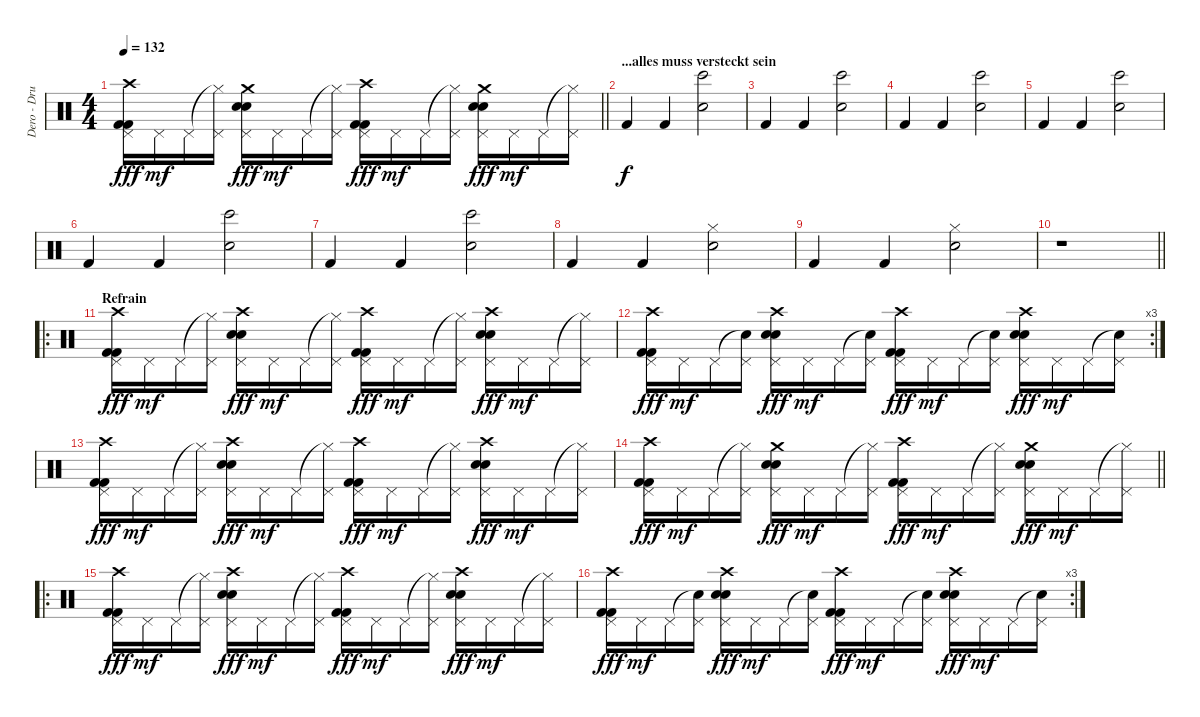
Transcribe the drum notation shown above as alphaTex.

\track ("Dero - Drums" "Dero - Dru") {instrument percussion}
\staff {score}
\articulation defaults
\ts (4 4)
\tempo 132
\clef neutral
\barLineRight lightlight
\ks c
("Crash high (hit)" "Pedal Hi-Hat (hit)" "Kick (hit) 2" "Kick (hit) 2").16{dy fff} "Pedal Hi-Hat (hit)".16{dy mf} "Pedal Hi-Hat (hit)".16 ("Hi-Hat (closed)"{t} "Pedal Hi-Hat (hit)").16 ("Crash medium (hit)" "Pedal Hi-Hat (hit)" "Electric Snare (hit)" "Electric Snare (hit)").16{dy fff} "Pedal Hi-Hat (hit)".16{dy mf} "Pedal Hi-Hat (hit)".16 ("Hi-Hat (closed)"{t} "Pedal Hi-Hat (hit)").16 ("Crash high (hit)" "Pedal Hi-Hat (hit)" "Kick (hit) 2" "Kick (hit) 2").16{dy fff} "Pedal Hi-Hat (hit)".16{dy mf} "Pedal Hi-Hat (hit)".16 ("Hi-Hat (closed)"{t} "Pedal Hi-Hat (hit)").16 ("Crash medium (hit)" "Pedal Hi-Hat (hit)" "Electric Snare (hit)" "Electric Snare (hit)").16{dy fff} "Pedal Hi-Hat (hit)".16{dy mf} "Pedal Hi-Hat (hit)".16 ("Hi-Hat (closed)"{t} "Pedal Hi-Hat (hit)").16 |
\section ("" "...alles muss versteckt sein")
"Kick (hit) 2".4{dy f} "Kick (hit) 2".4 ("Bongo High (hit)" "Snare (hit) 2").2 |
"Kick (hit) 2".4 "Kick (hit) 2".4 ("Bongo High (hit)" "Snare (hit) 2").2 |
"Kick (hit) 2".4 "Kick (hit) 2".4 ("Bongo High (hit)" "Snare (hit) 2").2 |
"Kick (hit) 2".4 "Kick (hit) 2".4 ("Bongo High (hit)" "Snare (hit) 2").2 |
"Kick (hit) 2".4 "Kick (hit) 2".4 ("Bongo High (hit)" "Snare (hit) 2").2 |
"Kick (hit) 2".4 "Kick (hit) 2".4 ("Bongo High (hit)" "Snare (hit) 2").2 |
"Kick (hit) 2".4 "Kick (hit) 2".4 ("Hi-Hat (closed)" "Snare (hit) 2").2 |
"Kick (hit) 2".4 "Kick (hit) 2".4 ("Hi-Hat (closed)" "Snare (hit) 2").2 |
\barLineRight lightlight
r.1 |
\ro
\section ("" "Refrain")
("Crash high (hit)" "Pedal Hi-Hat (hit)" "Kick (hit) 2" "Kick (hit) 2").16{dy fff} "Pedal Hi-Hat (hit)".16{dy mf} "Pedal Hi-Hat (hit)".16 ("Hi-Hat (closed)"{t} "Pedal Hi-Hat (hit)").16 ("Crash high (hit)" "Pedal Hi-Hat (hit)" "Electric Snare (hit)" "Electric Snare (hit)").16{dy fff} "Pedal Hi-Hat (hit)".16{dy mf} "Pedal Hi-Hat (hit)".16 ("Hi-Hat (closed)"{t} "Pedal Hi-Hat (hit)").16 ("Crash high (hit)" "Pedal Hi-Hat (hit)" "Kick (hit) 2" "Kick (hit) 2").16{dy fff} "Pedal Hi-Hat (hit)".16{dy mf} "Pedal Hi-Hat (hit)".16 ("Hi-Hat (closed)"{t} "Pedal Hi-Hat (hit)").16 ("Crash high (hit)" "Pedal Hi-Hat (hit)" "Electric Snare (hit)" "Electric Snare (hit)").16{dy fff} "Pedal Hi-Hat (hit)".16{dy mf} "Pedal Hi-Hat (hit)".16 ("Hi-Hat (closed)"{t} "Pedal Hi-Hat (hit)").16 |
\rc 3
("Crash high (hit)" "Pedal Hi-Hat (hit)" "Kick (hit) 2" "Kick (hit) 2").16{dy fff} "Pedal Hi-Hat (hit)".16{dy mf} "Pedal Hi-Hat (hit)".16 ("Snare (hit)"{t} "Pedal Hi-Hat (hit)").16 ("Crash high (hit)" "Pedal Hi-Hat (hit)" "Electric Snare (hit)" "Electric Snare (hit)").16{dy fff} "Pedal Hi-Hat (hit)".16{dy mf} "Pedal Hi-Hat (hit)".16 ("Snare (hit)"{t} "Pedal Hi-Hat (hit)").16 ("Crash high (hit)" "Pedal Hi-Hat (hit)" "Kick (hit) 2" "Kick (hit) 2").16{dy fff} "Pedal Hi-Hat (hit)".16{dy mf} "Pedal Hi-Hat (hit)".16 ("Snare (hit)"{t} "Pedal Hi-Hat (hit)").16 ("Crash high (hit)" "Pedal Hi-Hat (hit)" "Electric Snare (hit)" "Electric Snare (hit)").16{dy fff} "Pedal Hi-Hat (hit)".16{dy mf} "Pedal Hi-Hat (hit)".16 ("Snare (hit)"{t} "Pedal Hi-Hat (hit)").16 |
("Crash high (hit)" "Pedal Hi-Hat (hit)" "Kick (hit) 2" "Kick (hit) 2").16{dy fff} "Pedal Hi-Hat (hit)".16{dy mf} "Pedal Hi-Hat (hit)".16 ("Hi-Hat (closed)"{t} "Pedal Hi-Hat (hit)").16 ("Crash high (hit)" "Pedal Hi-Hat (hit)" "Electric Snare (hit)" "Electric Snare (hit)").16{dy fff} "Pedal Hi-Hat (hit)".16{dy mf} "Pedal Hi-Hat (hit)".16 ("Hi-Hat (closed)"{t} "Pedal Hi-Hat (hit)").16 ("Crash high (hit)" "Pedal Hi-Hat (hit)" "Kick (hit) 2" "Kick (hit) 2").16{dy fff} "Pedal Hi-Hat (hit)".16{dy mf} "Pedal Hi-Hat (hit)".16 ("Hi-Hat (closed)"{t} "Pedal Hi-Hat (hit)").16 ("Crash high (hit)" "Pedal Hi-Hat (hit)" "Electric Snare (hit)" "Electric Snare (hit)").16{dy fff} "Pedal Hi-Hat (hit)".16{dy mf} "Pedal Hi-Hat (hit)".16 ("Hi-Hat (closed)"{t} "Pedal Hi-Hat (hit)").16 |
\barLineRight lightlight
("Crash high (hit)" "Pedal Hi-Hat (hit)" "Kick (hit) 2" "Kick (hit) 2").16{dy fff} "Pedal Hi-Hat (hit)".16{dy mf} "Pedal Hi-Hat (hit)".16 ("Hi-Hat (closed)"{t} "Pedal Hi-Hat (hit)").16 ("Crash medium (hit)" "Pedal Hi-Hat (hit)" "Electric Snare (hit)" "Electric Snare (hit)").16{dy fff} "Pedal Hi-Hat (hit)".16{dy mf} "Pedal Hi-Hat (hit)".16 ("Hi-Hat (closed)"{t} "Pedal Hi-Hat (hit)").16 ("Crash high (hit)" "Pedal Hi-Hat (hit)" "Kick (hit) 2" "Kick (hit) 2").16{dy fff} "Pedal Hi-Hat (hit)".16{dy mf} "Pedal Hi-Hat (hit)".16 ("Hi-Hat (closed)"{t} "Pedal Hi-Hat (hit)").16 ("Crash medium (hit)" "Pedal Hi-Hat (hit)" "Electric Snare (hit)" "Electric Snare (hit)").16{dy fff} "Pedal Hi-Hat (hit)".16{dy mf} "Pedal Hi-Hat (hit)".16 ("Hi-Hat (closed)"{t} "Pedal Hi-Hat (hit)").16 |
\ro
("Crash high (hit)" "Pedal Hi-Hat (hit)" "Kick (hit) 2" "Kick (hit) 2").16{dy fff} "Pedal Hi-Hat (hit)".16{dy mf} "Pedal Hi-Hat (hit)".16 ("Hi-Hat (closed)"{t} "Pedal Hi-Hat (hit)").16 ("Crash high (hit)" "Pedal Hi-Hat (hit)" "Electric Snare (hit)" "Electric Snare (hit)").16{dy fff} "Pedal Hi-Hat (hit)".16{dy mf} "Pedal Hi-Hat (hit)".16 ("Hi-Hat (closed)"{t} "Pedal Hi-Hat (hit)").16 ("Crash high (hit)" "Pedal Hi-Hat (hit)" "Kick (hit) 2" "Kick (hit) 2").16{dy fff} "Pedal Hi-Hat (hit)".16{dy mf} "Pedal Hi-Hat (hit)".16 ("Hi-Hat (closed)"{t} "Pedal Hi-Hat (hit)").16 ("Crash high (hit)" "Pedal Hi-Hat (hit)" "Electric Snare (hit)" "Electric Snare (hit)").16{dy fff} "Pedal Hi-Hat (hit)".16{dy mf} "Pedal Hi-Hat (hit)".16 ("Hi-Hat (closed)"{t} "Pedal Hi-Hat (hit)").16 |
\rc 3
("Crash high (hit)" "Pedal Hi-Hat (hit)" "Kick (hit) 2" "Kick (hit) 2").16{dy fff} "Pedal Hi-Hat (hit)".16{dy mf} "Pedal Hi-Hat (hit)".16 ("Snare (hit)"{t} "Pedal Hi-Hat (hit)").16 ("Crash high (hit)" "Pedal Hi-Hat (hit)" "Electric Snare (hit)" "Electric Snare (hit)").16{dy fff} "Pedal Hi-Hat (hit)".16{dy mf} "Pedal Hi-Hat (hit)".16 ("Snare (hit)"{t} "Pedal Hi-Hat (hit)").16 ("Crash high (hit)" "Pedal Hi-Hat (hit)" "Kick (hit) 2" "Kick (hit) 2").16{dy fff} "Pedal Hi-Hat (hit)".16{dy mf} "Pedal Hi-Hat (hit)".16 ("Snare (hit)"{t} "Pedal Hi-Hat (hit)").16 ("Crash high (hit)" "Pedal Hi-Hat (hit)" "Electric Snare (hit)" "Electric Snare (hit)").16{dy fff} "Pedal Hi-Hat (hit)".16{dy mf} "Pedal Hi-Hat (hit)".16 ("Snare (hit)"{t} "Pedal Hi-Hat (hit)").16
